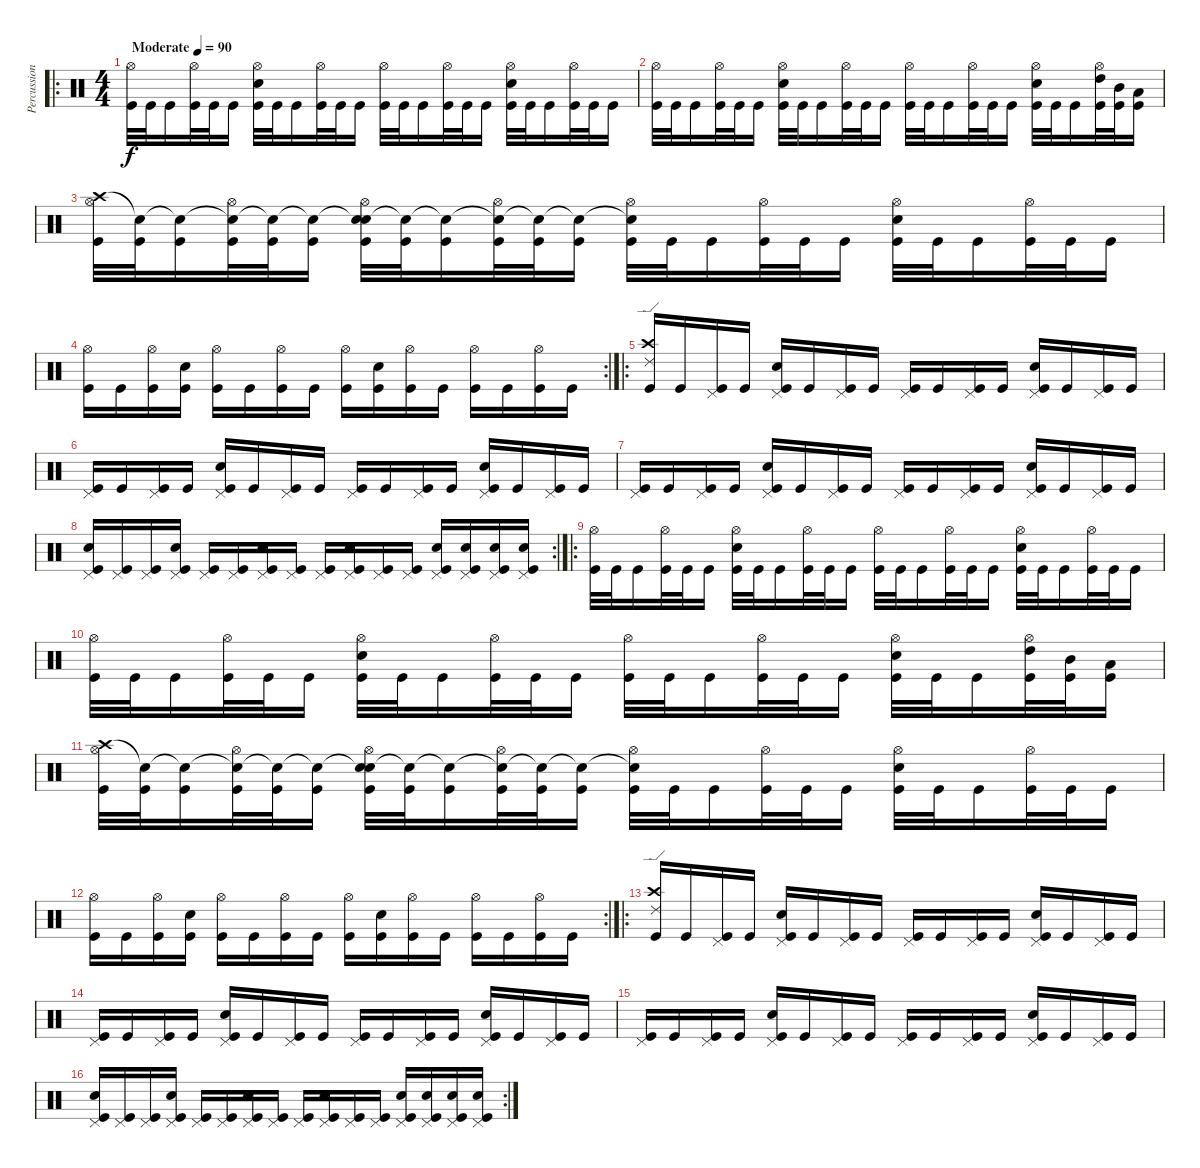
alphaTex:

\track ("Percussion" "Percussion") {instrument percussion}
\staff {score}
\articulation defaults
\ro
\ts (4 4)
\tempo (90 "Moderate")
\clef neutral
\ks c
("Hi-Hat (open)" "Kick (hit)").32{dy f} "Kick (hit)".32 "Kick (hit)".16 ("Hi-Hat (open)" "Kick (hit)").32 "Kick (hit)".32 "Kick (hit)".16 ("Hi-Hat (open)" "Electric Snare (hit)" "Kick (hit)").32 "Kick (hit)".32 "Kick (hit)".16 ("Hi-Hat (open)" "Kick (hit)").32 "Kick (hit)".32 "Kick (hit)".16 ("Hi-Hat (open)" "Kick (hit)").32 "Kick (hit)".32 "Kick (hit)".16 ("Hi-Hat (open)" "Kick (hit)").32 "Kick (hit)".32 "Kick (hit)".16 ("Hi-Hat (open)" "Electric Snare (hit)" "Kick (hit)").32 "Kick (hit)".32 "Kick (hit)".16 ("Hi-Hat (open)" "Kick (hit)").32 "Kick (hit)".32 "Kick (hit)".16 |
("Hi-Hat (open)" "Kick (hit)").32 "Kick (hit)".32 "Kick (hit)".16 ("Hi-Hat (open)" "Kick (hit)").32 "Kick (hit)".32 "Kick (hit)".16 ("Hi-Hat (open)" "Electric Snare (hit)" "Kick (hit)").32 "Kick (hit)".32 "Kick (hit)".16 ("Hi-Hat (open)" "Kick (hit)").32 "Kick (hit)".32 "Kick (hit)".16 ("Hi-Hat (open)" "Kick (hit)").32 "Kick (hit)".32 "Kick (hit)".16 ("Hi-Hat (open)" "Kick (hit)").32 "Kick (hit)".32 "Kick (hit)".16 ("Hi-Hat (open)" "Electric Snare (hit)" "Kick (hit)").32 "Kick (hit)".32 "Kick (hit)".16 ("Hi-Hat (open)" "High Tom (hit)" "Kick (hit)").32 ("Mid Tom (hit)" "Kick (hit)").32 ("Low Tom (hit)" "Kick (hit)").16 |
("Crash high (hit)" "Hi-Hat (open)" "Kick (hit)").32 ("Snare (hit)"{t} "Kick (hit)").32 ("Snare (hit)"{t} "Kick (hit)").16 ("Snare (hit)"{t} "Hi-Hat (open)" "Kick (hit)").32 ("Snare (hit)"{t} "Kick (hit)").32 ("Snare (hit)"{t} "Kick (hit)").16 ("Snare (hit)"{t} "Hi-Hat (open)" "Electric Snare (hit)" "Kick (hit)").32 ("Snare (hit)"{t} "Kick (hit)").32 ("Snare (hit)"{t} "Kick (hit)").16 ("Snare (hit)"{t} "Hi-Hat (open)" "Kick (hit)").32 ("Snare (hit)"{t} "Kick (hit)").32 ("Snare (hit)"{t} "Kick (hit)").16 ("Snare (hit)"{t} "Hi-Hat (open)" "Kick (hit)").32 "Kick (hit)".32 "Kick (hit)".16 ("Hi-Hat (open)" "Kick (hit)").32 "Kick (hit)".32 "Kick (hit)".16 ("Hi-Hat (open)" "Electric Snare (hit)" "Kick (hit)").32 "Kick (hit)".32 "Kick (hit)".16 ("Hi-Hat (open)" "Kick (hit)").32 "Kick (hit)".32 "Kick (hit)".16 |
\rc 2
("Hi-Hat (open)" "Kick (hit)").16 "Kick (hit)".16 ("Hi-Hat (open)" "Kick (hit)").16 ("Electric Snare (hit)" "Kick (hit)").16 ("Hi-Hat (open)" "Kick (hit)").16 "Kick (hit)".16 ("Hi-Hat (open)" "Kick (hit)").16 "Kick (hit)".16 ("Hi-Hat (open)" "Kick (hit)").16 ("Electric Snare (hit)" "Kick (hit)").16 ("Hi-Hat (open)" "Kick (hit)").16 "Kick (hit)".16 ("Hi-Hat (open)" "Kick (hit)").16 "Kick (hit)".16 ("Hi-Hat (open)" "Kick (hit)").16 "Kick (hit)".16 |
\ro
("Ride (edge) 2" "Crash high (hit)" "Kick (hit)").16 "Kick (hit)".16 ("Pedal Hi-Hat (hit)" "Kick (hit)").16 "Kick (hit)".16 ("Pedal Hi-Hat (hit)" "Electric Snare (hit)" "Kick (hit)").16 "Kick (hit)".16 ("Pedal Hi-Hat (hit)" "Kick (hit)").16 "Kick (hit)".16 ("Pedal Hi-Hat (hit)" "Kick (hit)").16 "Kick (hit)".16 ("Pedal Hi-Hat (hit)" "Kick (hit)").16 "Kick (hit)".16 ("Pedal Hi-Hat (hit)" "Electric Snare (hit)" "Kick (hit)").16 "Kick (hit)".16 ("Pedal Hi-Hat (hit)" "Kick (hit)").16 "Kick (hit)".16 |
("Pedal Hi-Hat (hit)" "Kick (hit)").16 "Kick (hit)".16 ("Pedal Hi-Hat (hit)" "Kick (hit)").16 "Kick (hit)".16 ("Pedal Hi-Hat (hit)" "Electric Snare (hit)" "Kick (hit)").16 "Kick (hit)".16 ("Pedal Hi-Hat (hit)" "Kick (hit)").16 "Kick (hit)".16 ("Pedal Hi-Hat (hit)" "Kick (hit)").16 "Kick (hit)".16 ("Pedal Hi-Hat (hit)" "Kick (hit)").16 "Kick (hit)".16 ("Pedal Hi-Hat (hit)" "Electric Snare (hit)" "Kick (hit)").16 "Kick (hit)".16 ("Pedal Hi-Hat (hit)" "Kick (hit)").16 "Kick (hit)".16 |
("Pedal Hi-Hat (hit)" "Kick (hit)").16 "Kick (hit)".16 ("Pedal Hi-Hat (hit)" "Kick (hit)").16 "Kick (hit)".16 ("Pedal Hi-Hat (hit)" "Electric Snare (hit)" "Kick (hit)").16 "Kick (hit)".16 ("Pedal Hi-Hat (hit)" "Kick (hit)").16 "Kick (hit)".16 ("Pedal Hi-Hat (hit)" "Kick (hit)").16 "Kick (hit)".16 ("Pedal Hi-Hat (hit)" "Kick (hit)").16 "Kick (hit)".16 ("Pedal Hi-Hat (hit)" "Electric Snare (hit)" "Kick (hit)").16 "Kick (hit)".16 ("Pedal Hi-Hat (hit)" "Kick (hit)").16 "Kick (hit)".16 |
\rc 2
("Pedal Hi-Hat (hit)" "Electric Snare (hit)" "Kick (hit)").16 ("Pedal Hi-Hat (hit)" "Kick (hit)").16 ("Pedal Hi-Hat (hit)" "Kick (hit)").16 ("Pedal Hi-Hat (hit)" "Electric Snare (hit)" "Kick (hit)").16 ("Pedal Hi-Hat (hit)" "Kick (hit)").16 ("Pedal Hi-Hat (hit)" "Kick (hit)").16 ("Pedal Hi-Hat (hit)" "Electric Snare (hit)" "Kick (hit)").16 ("Pedal Hi-Hat (hit)" "Kick (hit)").16 ("Pedal Hi-Hat (hit)" "Kick (hit)").16 ("Pedal Hi-Hat (hit)" "Electric Snare (hit)" "Kick (hit)").16 ("Pedal Hi-Hat (hit)" "Kick (hit)").16 ("Pedal Hi-Hat (hit)" "Kick (hit)").16 ("Pedal Hi-Hat (hit)" "Electric Snare (hit)" "Kick (hit)").16 ("Pedal Hi-Hat (hit)" "Electric Snare (hit)" "Kick (hit)").16 ("Pedal Hi-Hat (hit)" "Electric Snare (hit)" "Kick (hit)").16 ("Pedal Hi-Hat (hit)" "Electric Snare (hit)" "Kick (hit)").16 |
\ro
("Hi-Hat (open)" "Kick (hit)").32 "Kick (hit)".32 "Kick (hit)".16 ("Hi-Hat (open)" "Kick (hit)").32 "Kick (hit)".32 "Kick (hit)".16 ("Hi-Hat (open)" "Electric Snare (hit)" "Kick (hit)").32 "Kick (hit)".32 "Kick (hit)".16 ("Hi-Hat (open)" "Kick (hit)").32 "Kick (hit)".32 "Kick (hit)".16 ("Hi-Hat (open)" "Kick (hit)").32 "Kick (hit)".32 "Kick (hit)".16 ("Hi-Hat (open)" "Kick (hit)").32 "Kick (hit)".32 "Kick (hit)".16 ("Hi-Hat (open)" "Electric Snare (hit)" "Kick (hit)").32 "Kick (hit)".32 "Kick (hit)".16 ("Hi-Hat (open)" "Kick (hit)").32 "Kick (hit)".32 "Kick (hit)".16 |
("Hi-Hat (open)" "Kick (hit)").32 "Kick (hit)".32 "Kick (hit)".16 ("Hi-Hat (open)" "Kick (hit)").32 "Kick (hit)".32 "Kick (hit)".16 ("Hi-Hat (open)" "Electric Snare (hit)" "Kick (hit)").32 "Kick (hit)".32 "Kick (hit)".16 ("Hi-Hat (open)" "Kick (hit)").32 "Kick (hit)".32 "Kick (hit)".16 ("Hi-Hat (open)" "Kick (hit)").32 "Kick (hit)".32 "Kick (hit)".16 ("Hi-Hat (open)" "Kick (hit)").32 "Kick (hit)".32 "Kick (hit)".16 ("Hi-Hat (open)" "Electric Snare (hit)" "Kick (hit)").32 "Kick (hit)".32 "Kick (hit)".16 ("Hi-Hat (open)" "High Tom (hit)" "Kick (hit)").32 ("Mid Tom (hit)" "Kick (hit)").32 ("Low Tom (hit)" "Kick (hit)").16 |
("Crash high (hit)" "Hi-Hat (open)" "Kick (hit)").32 ("Snare (hit)"{t} "Kick (hit)").32 ("Snare (hit)"{t} "Kick (hit)").16 ("Snare (hit)"{t} "Hi-Hat (open)" "Kick (hit)").32 ("Snare (hit)"{t} "Kick (hit)").32 ("Snare (hit)"{t} "Kick (hit)").16 ("Snare (hit)"{t} "Hi-Hat (open)" "Electric Snare (hit)" "Kick (hit)").32 ("Snare (hit)"{t} "Kick (hit)").32 ("Snare (hit)"{t} "Kick (hit)").16 ("Snare (hit)"{t} "Hi-Hat (open)" "Kick (hit)").32 ("Snare (hit)"{t} "Kick (hit)").32 ("Snare (hit)"{t} "Kick (hit)").16 ("Snare (hit)"{t} "Hi-Hat (open)" "Kick (hit)").32 "Kick (hit)".32 "Kick (hit)".16 ("Hi-Hat (open)" "Kick (hit)").32 "Kick (hit)".32 "Kick (hit)".16 ("Hi-Hat (open)" "Electric Snare (hit)" "Kick (hit)").32 "Kick (hit)".32 "Kick (hit)".16 ("Hi-Hat (open)" "Kick (hit)").32 "Kick (hit)".32 "Kick (hit)".16 |
\rc 2
("Hi-Hat (open)" "Kick (hit)").16 "Kick (hit)".16 ("Hi-Hat (open)" "Kick (hit)").16 ("Electric Snare (hit)" "Kick (hit)").16 ("Hi-Hat (open)" "Kick (hit)").16 "Kick (hit)".16 ("Hi-Hat (open)" "Kick (hit)").16 "Kick (hit)".16 ("Hi-Hat (open)" "Kick (hit)").16 ("Electric Snare (hit)" "Kick (hit)").16 ("Hi-Hat (open)" "Kick (hit)").16 "Kick (hit)".16 ("Hi-Hat (open)" "Kick (hit)").16 "Kick (hit)".16 ("Hi-Hat (open)" "Kick (hit)").16 "Kick (hit)".16 |
\ro
("Ride (edge) 2" "Crash high (hit)" "Kick (hit)").16 "Kick (hit)".16 ("Pedal Hi-Hat (hit)" "Kick (hit)").16 "Kick (hit)".16 ("Pedal Hi-Hat (hit)" "Electric Snare (hit)" "Kick (hit)").16 "Kick (hit)".16 ("Pedal Hi-Hat (hit)" "Kick (hit)").16 "Kick (hit)".16 ("Pedal Hi-Hat (hit)" "Kick (hit)").16 "Kick (hit)".16 ("Pedal Hi-Hat (hit)" "Kick (hit)").16 "Kick (hit)".16 ("Pedal Hi-Hat (hit)" "Electric Snare (hit)" "Kick (hit)").16 "Kick (hit)".16 ("Pedal Hi-Hat (hit)" "Kick (hit)").16 "Kick (hit)".16 |
("Pedal Hi-Hat (hit)" "Kick (hit)").16 "Kick (hit)".16 ("Pedal Hi-Hat (hit)" "Kick (hit)").16 "Kick (hit)".16 ("Pedal Hi-Hat (hit)" "Electric Snare (hit)" "Kick (hit)").16 "Kick (hit)".16 ("Pedal Hi-Hat (hit)" "Kick (hit)").16 "Kick (hit)".16 ("Pedal Hi-Hat (hit)" "Kick (hit)").16 "Kick (hit)".16 ("Pedal Hi-Hat (hit)" "Kick (hit)").16 "Kick (hit)".16 ("Pedal Hi-Hat (hit)" "Electric Snare (hit)" "Kick (hit)").16 "Kick (hit)".16 ("Pedal Hi-Hat (hit)" "Kick (hit)").16 "Kick (hit)".16 |
("Pedal Hi-Hat (hit)" "Kick (hit)").16 "Kick (hit)".16 ("Pedal Hi-Hat (hit)" "Kick (hit)").16 "Kick (hit)".16 ("Pedal Hi-Hat (hit)" "Electric Snare (hit)" "Kick (hit)").16 "Kick (hit)".16 ("Pedal Hi-Hat (hit)" "Kick (hit)").16 "Kick (hit)".16 ("Pedal Hi-Hat (hit)" "Kick (hit)").16 "Kick (hit)".16 ("Pedal Hi-Hat (hit)" "Kick (hit)").16 "Kick (hit)".16 ("Pedal Hi-Hat (hit)" "Electric Snare (hit)" "Kick (hit)").16 "Kick (hit)".16 ("Pedal Hi-Hat (hit)" "Kick (hit)").16 "Kick (hit)".16 |
\rc 2
("Pedal Hi-Hat (hit)" "Electric Snare (hit)" "Kick (hit)").16 ("Pedal Hi-Hat (hit)" "Kick (hit)").16 ("Pedal Hi-Hat (hit)" "Kick (hit)").16 ("Pedal Hi-Hat (hit)" "Electric Snare (hit)" "Kick (hit)").16 ("Pedal Hi-Hat (hit)" "Kick (hit)").16 ("Pedal Hi-Hat (hit)" "Kick (hit)").16 ("Pedal Hi-Hat (hit)" "Electric Snare (hit)" "Kick (hit)").16 ("Pedal Hi-Hat (hit)" "Kick (hit)").16 ("Pedal Hi-Hat (hit)" "Kick (hit)").16 ("Pedal Hi-Hat (hit)" "Electric Snare (hit)" "Kick (hit)").16 ("Pedal Hi-Hat (hit)" "Kick (hit)").16 ("Pedal Hi-Hat (hit)" "Kick (hit)").16 ("Pedal Hi-Hat (hit)" "Electric Snare (hit)" "Kick (hit)").16 ("Pedal Hi-Hat (hit)" "Electric Snare (hit)" "Kick (hit)").16 ("Pedal Hi-Hat (hit)" "Electric Snare (hit)" "Kick (hit)").16 ("Pedal Hi-Hat (hit)" "Electric Snare (hit)" "Kick (hit)").16
